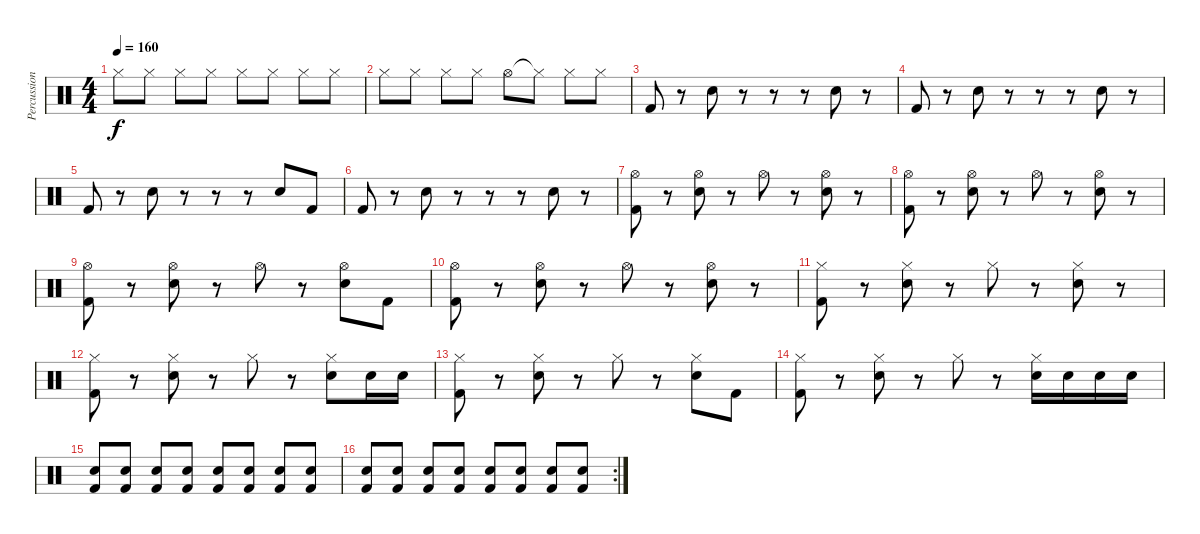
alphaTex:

\track ("Percussion" "Percussion") {instrument percussion}
\staff {score}
\articulation defaults
\ts (4 4)
\tempo 160
\clef neutral
\ks c "Hi-Hat (closed)".8{dy f} "Hi-Hat (closed)".8 "Hi-Hat (closed)".8 "Hi-Hat (closed)".8 "Hi-Hat (closed)".8 "Hi-Hat (closed)".8 "Hi-Hat (closed)".8 "Hi-Hat (closed)".8
|
"Hi-Hat (closed)".8 "Hi-Hat (closed)".8 "Hi-Hat (closed)".8 "Hi-Hat (closed)".8 "Hi-Hat (open)".8 "Hi-Hat (closed)"{t}.8 "Hi-Hat (closed)".8 "Hi-Hat (closed)".8 |
"Kick (hit) 2".8 r.8 "Snare (hit) 2".8 r.8 r.8 r.8 "Snare (hit) 2".8 r.8 |
"Kick (hit) 2".8 r.8 "Snare (hit) 2".8 r.8 r.8 r.8 "Snare (hit) 2".8 r.8 |
"Kick (hit) 2".8 r.8 "Snare (hit) 2".8 r.8 r.8 r.8 "Snare (hit) 2".8 "Kick (hit) 2".8 |
"Kick (hit) 2".8 r.8 "Snare (hit) 2".8 r.8 r.8 r.8 "Snare (hit) 2".8 r.8 |
("Kick (hit) 2" "Hi-Hat (open)").8 r.8 ("Snare (hit) 2" "Hi-Hat (open)").8 r.8 "Hi-Hat (open)".8 r.8 ("Snare (hit) 2" "Hi-Hat (open)").8 r.8 |
("Kick (hit) 2" "Hi-Hat (open)").8 r.8 ("Snare (hit) 2" "Hi-Hat (open)").8 r.8 "Hi-Hat (open)".8 r.8 ("Snare (hit) 2" "Hi-Hat (open)").8 r.8 |
("Kick (hit) 2" "Hi-Hat (open)").8 r.8 ("Snare (hit) 2" "Hi-Hat (open)").8 r.8 "Hi-Hat (open)".8 r.8 ("Snare (hit) 2" "Hi-Hat (open)").8 "Kick (hit) 2".8 |
("Kick (hit) 2" "Hi-Hat (open)").8 r.8 ("Snare (hit) 2" "Hi-Hat (open)").8 r.8 "Hi-Hat (open)".8 r.8 ("Snare (hit) 2" "Hi-Hat (open)").8 r.8 |
("Kick (hit) 2" "Hi-Hat (closed)").8 r.8 ("Snare (hit) 2" "Hi-Hat (closed)").8 r.8 "Hi-Hat (closed)".8 r.8 ("Snare (hit) 2" "Hi-Hat (closed)").8 r.8 |
("Kick (hit) 2" "Hi-Hat (closed)").8 r.8 ("Snare (hit) 2" "Hi-Hat (closed)").8 r.8 "Hi-Hat (closed)".8 r.8 ("Snare (hit) 2" "Hi-Hat (closed)").8 "Snare (hit) 2".16 "Snare (hit) 2".16 |
("Kick (hit) 2" "Hi-Hat (closed)").8 r.8 ("Snare (hit) 2" "Hi-Hat (closed)").8 r.8 "Hi-Hat (closed)".8 r.8 ("Snare (hit) 2" "Hi-Hat (closed)").8 "Kick (hit) 2".8 |
("Kick (hit) 2" "Hi-Hat (closed)").8 r.8 ("Snare (hit) 2" "Hi-Hat (closed)").8 r.8 "Hi-Hat (closed)".8 r.8 ("Snare (hit) 2" "Hi-Hat (closed)").16 "Snare (hit) 2".16 "Snare (hit) 2".16 "Snare (hit) 2".16 |
("Snare (hit) 2" "Kick (hit) 2").8{volume 6} ("Snare (hit) 2" "Kick (hit) 2").8 ("Snare (hit) 2" "Kick (hit) 2").8{volume 7} ("Snare (hit) 2" "Kick (hit) 2").8 ("Snare (hit) 2" "Kick (hit) 2").8{volume 8} ("Snare (hit) 2" "Kick (hit) 2").8 ("Snare (hit) 2" "Kick (hit) 2").8{volume 9} ("Snare (hit) 2" "Kick (hit) 2").8 |
\rc 2
("Snare (hit) 2" "Kick (hit) 2").8{volume 10} ("Snare (hit) 2" "Kick (hit) 2").8 ("Snare (hit) 2" "Kick (hit) 2").8{volume 11} ("Snare (hit) 2" "Kick (hit) 2").8 ("Snare (hit) 2" "Kick (hit) 2").8{volume 12} ("Snare (hit) 2" "Kick (hit) 2").8 ("Snare (hit) 2" "Kick (hit) 2").8{volume 13} ("Snare (hit) 2" "Kick (hit) 2").8
